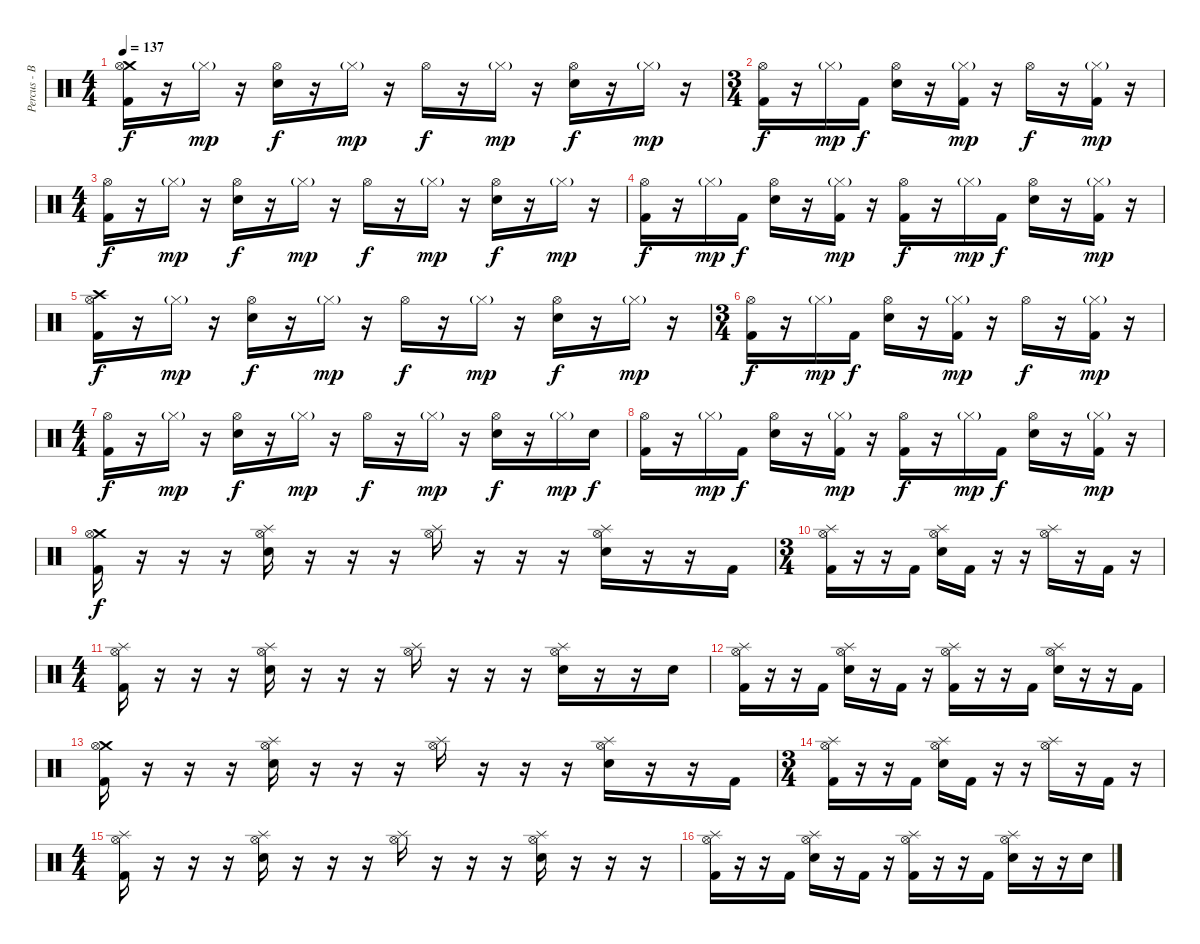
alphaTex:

\track ("Percus - Brice" "Percus - B") {instrument percussion}
\staff {score}
\articulation defaults
\ts (4 4)
\tempo 137
\clef neutral
\ks c
("Crash medium (hit)" "Hi-Hat (open)" "Kick (hit) 2").16{dy f} r.16 "Hi-Hat (closed)"{g}.16{dy mp} r.16 ("Hi-Hat (open)" "Electric Snare (hit)").16{dy f} r.16 "Hi-Hat (closed)"{g}.16{dy mp} r.16 "Hi-Hat (open)".16{dy f} r.16 "Hi-Hat (closed)"{g}.16{dy mp} r.16 ("Hi-Hat (open)" "Electric Snare (hit)").16{dy f} r.16 "Hi-Hat (closed)"{g}.16{dy mp} r.16 |
\ts (3 4)
("Hi-Hat (open)" "Kick (hit) 2").16{dy f} r.16 "Hi-Hat (closed)"{g}.16{dy mp} "Kick (hit) 2".16{dy f} ("Hi-Hat (open)" "Electric Snare (hit)").16 r.16 ("Hi-Hat (closed)"{g} "Kick (hit) 2").16{dy mp} r.16 "Hi-Hat (open)".16{dy f} r.16 ("Hi-Hat (closed)"{g} "Kick (hit) 2").16{dy mp} r.16 |
\ts (4 4)
("Hi-Hat (open)" "Kick (hit) 2").16{dy f} r.16 "Hi-Hat (closed)"{g}.16{dy mp} r.16 ("Hi-Hat (open)" "Electric Snare (hit)").16{dy f} r.16 "Hi-Hat (closed)"{g}.16{dy mp} r.16 "Hi-Hat (open)".16{dy f} r.16 "Hi-Hat (closed)"{g}.16{dy mp} r.16 ("Hi-Hat (open)" "Electric Snare (hit)").16{dy f} r.16 "Hi-Hat (closed)"{g}.16{dy mp} r.16 |
("Hi-Hat (open)" "Kick (hit) 2").16{dy f} r.16 "Hi-Hat (closed)"{g}.16{dy mp} "Kick (hit) 2".16{dy f} ("Hi-Hat (open)" "Electric Snare (hit)").16 r.16 ("Hi-Hat (closed)"{g} "Kick (hit) 2").16{dy mp} r.16 ("Hi-Hat (open)" "Kick (hit) 2").16{dy f} r.16 "Hi-Hat (closed)"{g}.16{dy mp} "Kick (hit) 2".16{dy f} ("Hi-Hat (open)" "Electric Snare (hit)").16 r.16 ("Hi-Hat (closed)"{g} "Kick (hit) 2").16{dy mp} r.16 |
("Crash high (hit)" "Hi-Hat (open)" "Kick (hit) 2").16{dy f} r.16 "Hi-Hat (closed)"{g}.16{dy mp} r.16 ("Hi-Hat (open)" "Electric Snare (hit)").16{dy f} r.16 "Hi-Hat (closed)"{g}.16{dy mp} r.16 "Hi-Hat (open)".16{dy f} r.16 "Hi-Hat (closed)"{g}.16{dy mp} r.16 ("Hi-Hat (open)" "Electric Snare (hit)").16{dy f} r.16 "Hi-Hat (closed)"{g}.16{dy mp} r.16 |
\ts (3 4)
("Hi-Hat (open)" "Kick (hit) 2").16{dy f} r.16 "Hi-Hat (closed)"{g}.16{dy mp} "Kick (hit) 2".16{dy f} ("Hi-Hat (open)" "Electric Snare (hit)").16 r.16 ("Hi-Hat (closed)"{g} "Kick (hit) 2").16{dy mp} r.16 "Hi-Hat (open)".16{dy f} r.16 ("Hi-Hat (closed)"{g} "Kick (hit) 2").16{dy mp} r.16 |
\ts (4 4)
("Hi-Hat (open)" "Kick (hit) 2").16{dy f} r.16 "Hi-Hat (closed)"{g}.16{dy mp} r.16 ("Hi-Hat (open)" "Electric Snare (hit)").16{dy f} r.16 "Hi-Hat (closed)"{g}.16{dy mp} r.16 "Hi-Hat (open)".16{dy f} r.16 "Hi-Hat (closed)"{g}.16{dy mp} r.16 ("Hi-Hat (open)" "Electric Snare (hit)").16{dy f} r.16 "Hi-Hat (closed)"{g}.16{dy mp} "Electric Snare (hit)".16{dy f} |
("Hi-Hat (open)" "Kick (hit) 2").16 r.16 "Hi-Hat (closed)"{g}.16{dy mp} "Kick (hit) 2".16{dy f} ("Hi-Hat (open)" "Electric Snare (hit)").16 r.16 ("Hi-Hat (closed)"{g} "Kick (hit) 2").16{dy mp} r.16 ("Hi-Hat (open)" "Kick (hit) 2").16{dy f} r.16 "Hi-Hat (closed)"{g}.16{dy mp} "Kick (hit) 2".16{dy f} ("Hi-Hat (open)" "Electric Snare (hit)").16 r.16 ("Hi-Hat (closed)"{g} "Kick (hit) 2").16{dy mp} r.16 |
("Crash medium (hit)" "Hi-Hat (open)" "Kick (hit) 2").16{dy f} r.16 r.16 r.16 ("Splash (hit)" "Hi-Hat (open)" "Electric Snare (hit)").16 r.16 r.16 r.16 ("Splash (hit)" "Hi-Hat (open)").16 r.16 r.16 r.16 ("Splash (hit)" "Hi-Hat (open)" "Electric Snare (hit)").16 r.16 r.16 "Kick (hit) 2".16 |
\ts (3 4)
("Splash (hit)" "Hi-Hat (open)" "Kick (hit) 2").16 r.16 r.16 "Kick (hit) 2".16 ("Splash (hit)" "Hi-Hat (open)" "Electric Snare (hit)").16 "Kick (hit) 2".16 r.16 r.16 ("Splash (hit)" "Hi-Hat (open)").16 r.16 "Kick (hit) 2".16 r.16 |
\ts (4 4)
("Splash (hit)" "Hi-Hat (open)" "Kick (hit) 2").16 r.16 r.16 r.16 ("Splash (hit)" "Hi-Hat (open)" "Electric Snare (hit)").16 r.16 r.16 r.16 ("Splash (hit)" "Hi-Hat (open)").16 r.16 r.16 r.16 ("Splash (hit)" "Hi-Hat (open)" "Electric Snare (hit)").16 r.16 r.16 "Electric Snare (hit)".16 |
("Splash (hit)" "Hi-Hat (open)" "Kick (hit) 2").16 r.16 r.16 "Kick (hit) 2".16 ("Splash (hit)" "Hi-Hat (open)" "Electric Snare (hit)").16 r.16 "Kick (hit) 2".16 r.16 ("Splash (hit)" "Hi-Hat (open)" "Kick (hit) 2").16 r.16 r.16 "Kick (hit) 2".16 ("Splash (hit)" "Hi-Hat (open)" "Electric Snare (hit)").16 r.16 r.16 "Kick (hit) 2".16 |
("Crash medium (hit)" "Hi-Hat (open)" "Kick (hit) 2").16 r.16 r.16 r.16 ("Splash (hit)" "Hi-Hat (open)" "Electric Snare (hit)").16 r.16 r.16 r.16 ("Splash (hit)" "Hi-Hat (open)").16 r.16 r.16 r.16 ("Splash (hit)" "Hi-Hat (open)" "Electric Snare (hit)").16 r.16 r.16 "Kick (hit) 2".16 |
\ts (3 4)
("Splash (hit)" "Hi-Hat (open)" "Kick (hit) 2").16 r.16 r.16 "Kick (hit) 2".16 ("Splash (hit)" "Hi-Hat (open)" "Electric Snare (hit)").16 "Kick (hit) 2".16 r.16 r.16 ("Splash (hit)" "Hi-Hat (open)").16 r.16 "Kick (hit) 2".16 r.16 |
\ts (4 4)
("Splash (hit)" "Hi-Hat (open)" "Kick (hit) 2").16 r.16 r.16 r.16 ("Splash (hit)" "Hi-Hat (open)" "Electric Snare (hit)").16 r.16 r.16 r.16 ("Splash (hit)" "Hi-Hat (open)").16 r.16 r.16 r.16 ("Splash (hit)" "Hi-Hat (open)" "Electric Snare (hit)").16 r.16 r.16 r.16 |
("Splash (hit)" "Hi-Hat (open)" "Kick (hit) 2").16 r.16 r.16 "Kick (hit) 2".16 ("Splash (hit)" "Hi-Hat (open)" "Electric Snare (hit)").16 r.16 "Kick (hit) 2".16 r.16 ("Splash (hit)" "Hi-Hat (open)" "Kick (hit) 2").16 r.16 r.16 "Kick (hit) 2".16 ("Splash (hit)" "Hi-Hat (open)" "Electric Snare (hit)").16 r.16 r.16 "Electric Snare (hit)".16
